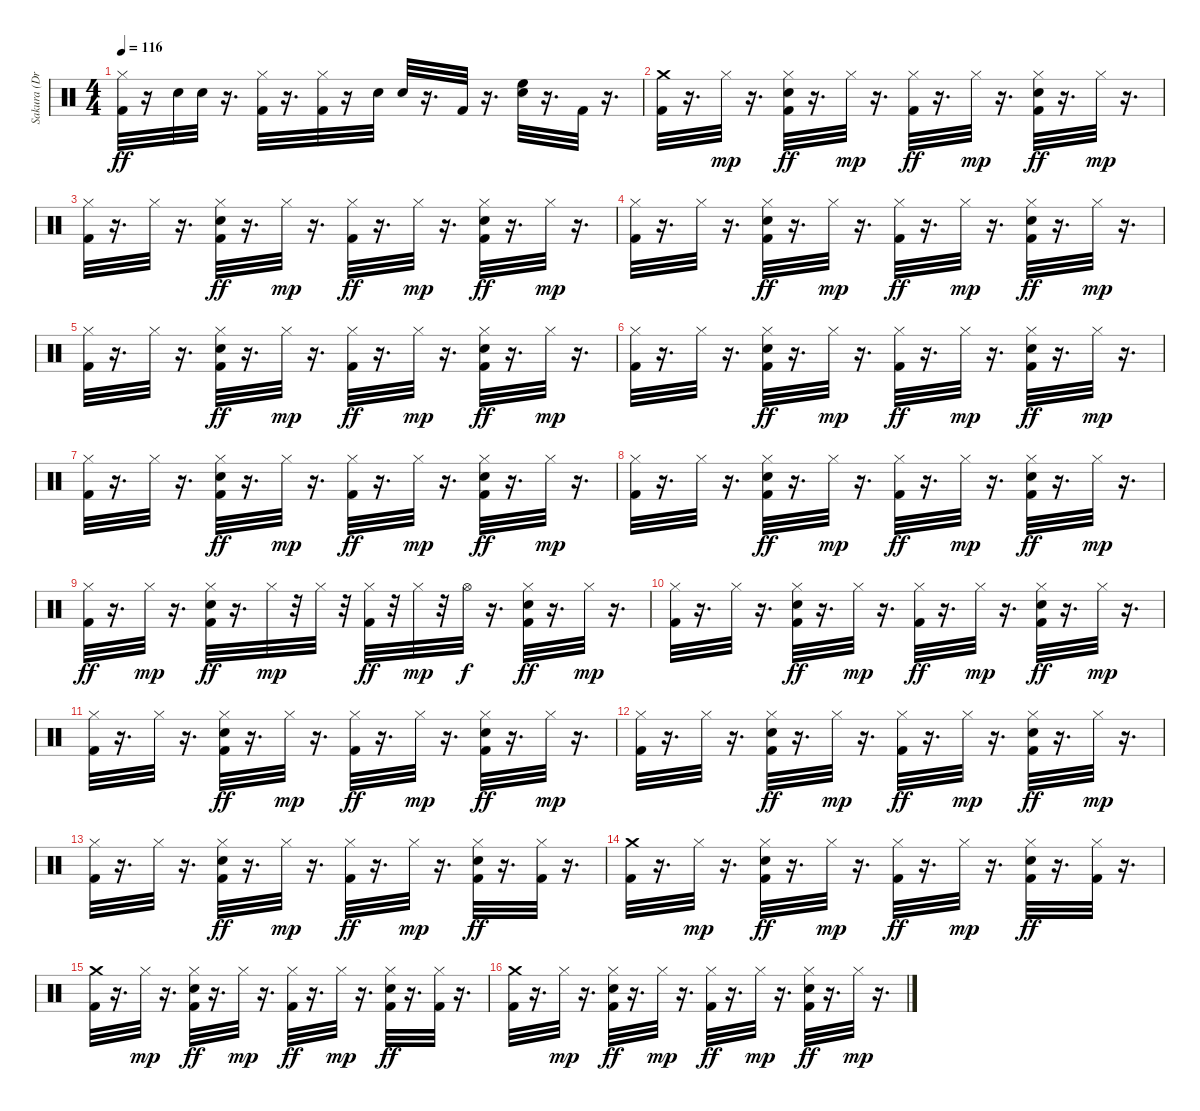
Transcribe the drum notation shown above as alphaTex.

\track ("Sakura (Drums)" "Sakura (Dr") {instrument percussion}
\staff {score}
\articulation defaults
\ts (4 4)
\tempo 116
\clef neutral
\ks c
("Hi-Hat (closed)" "Kick (hit) 2").32{dy ff} r.16 "Electric Snare (hit)".32 "Electric Snare (hit)".32 r.16{d} ("Hi-Hat (closed)" "Kick (hit) 2").32 r.16{d} ("Hi-Hat (closed)" "Kick (hit) 2").32 r.16 "Electric Snare (hit)".32 "Electric Snare (hit)".32 r.16{d} "Kick (hit) 2".32 r.16{d} ("Electric Snare (hit)" "High Floor Tom (hit)").32 r.16{d} "Kick (hit) 2".32 r.16{d} |
("Crash medium (hit)" "Kick (hit) 2").32 r.16{d} "Hi-Hat (closed)".32{dy mp} r.16{d} ("Hi-Hat (closed)" "Electric Snare (hit)" "Kick (hit) 2").32{dy ff} r.16{d} "Hi-Hat (closed)".32{dy mp} r.16{d} ("Hi-Hat (closed)" "Kick (hit) 2").32{dy ff} r.16{d} "Hi-Hat (closed)".32{dy mp} r.16{d} ("Hi-Hat (closed)" "Electric Snare (hit)" "Kick (hit) 2").32{dy ff} r.16{d} "Hi-Hat (closed)".32{dy mp} r.16{d} |
("Kick (hit) 2" "Hi-Hat (closed)").32 r.16{d} "Hi-Hat (closed)".32 r.16{d} ("Hi-Hat (closed)" "Electric Snare (hit)" "Kick (hit) 2").32{dy ff} r.16{d} "Hi-Hat (closed)".32{dy mp} r.16{d} ("Hi-Hat (closed)" "Kick (hit) 2").32{dy ff} r.16{d} "Hi-Hat (closed)".32{dy mp} r.16{d} ("Hi-Hat (closed)" "Electric Snare (hit)" "Kick (hit) 2").32{dy ff} r.16{d} "Hi-Hat (closed)".32{dy mp} r.16{d} |
("Kick (hit) 2" "Hi-Hat (closed)").32 r.16{d} "Hi-Hat (closed)".32 r.16{d} ("Hi-Hat (closed)" "Electric Snare (hit)" "Kick (hit) 2").32{dy ff} r.16{d} "Hi-Hat (closed)".32{dy mp} r.16{d} ("Hi-Hat (closed)" "Kick (hit) 2").32{dy ff} r.16{d} "Hi-Hat (closed)".32{dy mp} r.16{d} ("Hi-Hat (closed)" "Electric Snare (hit)" "Kick (hit) 2").32{dy ff} r.16{d} "Hi-Hat (closed)".32{dy mp} r.16{d} |
("Kick (hit) 2" "Hi-Hat (closed)").32 r.16{d} "Hi-Hat (closed)".32 r.16{d} ("Hi-Hat (closed)" "Electric Snare (hit)" "Kick (hit) 2").32{dy ff} r.16{d} "Hi-Hat (closed)".32{dy mp} r.16{d} ("Hi-Hat (closed)" "Kick (hit) 2").32{dy ff} r.16{d} "Hi-Hat (closed)".32{dy mp} r.16{d} ("Hi-Hat (closed)" "Electric Snare (hit)" "Kick (hit) 2").32{dy ff} r.16{d} "Hi-Hat (closed)".32{dy mp} r.16{d} |
("Kick (hit) 2" "Hi-Hat (closed)").32 r.16{d} "Hi-Hat (closed)".32 r.16{d} ("Hi-Hat (closed)" "Electric Snare (hit)" "Kick (hit) 2").32{dy ff} r.16{d} "Hi-Hat (closed)".32{dy mp} r.16{d} ("Hi-Hat (closed)" "Kick (hit) 2").32{dy ff} r.16{d} "Hi-Hat (closed)".32{dy mp} r.16{d} ("Hi-Hat (closed)" "Electric Snare (hit)" "Kick (hit) 2").32{dy ff} r.16{d} "Hi-Hat (closed)".32{dy mp} r.16{d} |
("Kick (hit) 2" "Hi-Hat (closed)").32 r.16{d} "Hi-Hat (closed)".32 r.16{d} ("Hi-Hat (closed)" "Electric Snare (hit)" "Kick (hit) 2").32{dy ff} r.16{d} "Hi-Hat (closed)".32{dy mp} r.16{d} ("Hi-Hat (closed)" "Kick (hit) 2").32{dy ff} r.16{d} "Hi-Hat (closed)".32{dy mp} r.16{d} ("Hi-Hat (closed)" "Electric Snare (hit)" "Kick (hit) 2").32{dy ff} r.16{d} "Hi-Hat (closed)".32{dy mp} r.16{d} |
("Kick (hit) 2" "Hi-Hat (closed)").32 r.16{d} "Hi-Hat (closed)".32 r.16{d} ("Hi-Hat (closed)" "Electric Snare (hit)" "Kick (hit) 2").32{dy ff} r.16{d} "Hi-Hat (closed)".32{dy mp} r.16{d} ("Hi-Hat (closed)" "Kick (hit) 2").32{dy ff} r.16{d} "Hi-Hat (closed)".32{dy mp} r.16{d} ("Hi-Hat (closed)" "Electric Snare (hit)" "Kick (hit) 2").32{dy ff} r.16{d} "Hi-Hat (closed)".32{dy mp} r.16{d} |
("Hi-Hat (closed)" "Kick (hit) 2").32{dy ff} r.16{d} "Hi-Hat (closed)".32{dy mp} r.16{d} ("Hi-Hat (closed)" "Electric Snare (hit)" "Kick (hit) 2").32{dy ff} r.16{d} "Hi-Hat (closed)".32{dy mp} r.32 "Hi-Hat (closed)".32 r.32 ("Hi-Hat (closed)" "Kick (hit) 2").32{dy ff} r.32 "Hi-Hat (closed)".32{dy mp} r.32 "Hi-Hat (open)".32{dy f} r.16{d} ("Hi-Hat (closed)" "Electric Snare (hit)" "Kick (hit) 2").32{dy ff} r.16{d} "Hi-Hat (closed)".32{dy mp} r.16{d} |
("Kick (hit) 2" "Hi-Hat (closed)").32 r.16{d} "Hi-Hat (closed)".32 r.16{d} ("Hi-Hat (closed)" "Electric Snare (hit)" "Kick (hit) 2").32{dy ff} r.16{d} "Hi-Hat (closed)".32{dy mp} r.16{d} ("Hi-Hat (closed)" "Kick (hit) 2").32{dy ff} r.16{d} "Hi-Hat (closed)".32{dy mp} r.16{d} ("Hi-Hat (closed)" "Electric Snare (hit)" "Kick (hit) 2").32{dy ff} r.16{d} "Hi-Hat (closed)".32{dy mp} r.16{d} |
("Kick (hit) 2" "Hi-Hat (closed)").32 r.16{d} "Hi-Hat (closed)".32 r.16{d} ("Hi-Hat (closed)" "Electric Snare (hit)" "Kick (hit) 2").32{dy ff} r.16{d} "Hi-Hat (closed)".32{dy mp} r.16{d} ("Hi-Hat (closed)" "Kick (hit) 2").32{dy ff} r.16{d} "Hi-Hat (closed)".32{dy mp} r.16{d} ("Hi-Hat (closed)" "Electric Snare (hit)" "Kick (hit) 2").32{dy ff} r.16{d} "Hi-Hat (closed)".32{dy mp} r.16{d} |
("Kick (hit) 2" "Hi-Hat (closed)").32 r.16{d} "Hi-Hat (closed)".32 r.16{d} ("Hi-Hat (closed)" "Electric Snare (hit)" "Kick (hit) 2").32{dy ff} r.16{d} "Hi-Hat (closed)".32{dy mp} r.16{d} ("Hi-Hat (closed)" "Kick (hit) 2").32{dy ff} r.16{d} "Hi-Hat (closed)".32{dy mp} r.16{d} ("Hi-Hat (closed)" "Electric Snare (hit)" "Kick (hit) 2").32{dy ff} r.16{d} "Hi-Hat (closed)".32{dy mp} r.16{d} |
("Kick (hit) 2" "Hi-Hat (closed)").32 r.16{d} "Hi-Hat (closed)".32 r.16{d} ("Hi-Hat (closed)" "Electric Snare (hit)" "Kick (hit) 2").32{dy ff} r.16{d} "Hi-Hat (closed)".32{dy mp} r.16{d} ("Hi-Hat (closed)" "Kick (hit) 2").32{dy ff} r.16{d} "Hi-Hat (closed)".32{dy mp} r.16{d} ("Hi-Hat (closed)" "Electric Snare (hit)" "Kick (hit) 2").32{dy ff} r.16{d} ("Hi-Hat (closed)" "Kick (hit) 2").32 r.16{d} |
("Kick (hit) 2" "Crash medium (hit)").32 r.16{d} "Hi-Hat (closed)".32{dy mp} r.16{d} ("Hi-Hat (closed)" "Electric Snare (hit)" "Kick (hit) 2").32{dy ff} r.16{d} "Hi-Hat (closed)".32{dy mp} r.16{d} ("Hi-Hat (closed)" "Kick (hit) 2").32{dy ff} r.16{d} "Hi-Hat (closed)".32{dy mp} r.16{d} ("Hi-Hat (closed)" "Electric Snare (hit)" "Kick (hit) 2").32{dy ff} r.16{d} ("Hi-Hat (closed)" "Kick (hit) 2").32 r.16{d} |
("Kick (hit) 2" "Crash medium (hit)").32 r.16{d} "Hi-Hat (closed)".32{dy mp} r.16{d} ("Hi-Hat (closed)" "Electric Snare (hit)" "Kick (hit) 2").32{dy ff} r.16{d} "Hi-Hat (closed)".32{dy mp} r.16{d} ("Hi-Hat (closed)" "Kick (hit) 2").32{dy ff} r.16{d} "Hi-Hat (closed)".32{dy mp} r.16{d} ("Hi-Hat (closed)" "Electric Snare (hit)" "Kick (hit) 2").32{dy ff} r.16{d} ("Hi-Hat (closed)" "Kick (hit) 2").32 r.16{d} |
("Kick (hit) 2" "Crash medium (hit)").32 r.16{d} "Hi-Hat (closed)".32{dy mp} r.16{d} ("Hi-Hat (closed)" "Electric Snare (hit)" "Kick (hit) 2").32{dy ff} r.16{d} "Hi-Hat (closed)".32{dy mp} r.16{d} ("Hi-Hat (closed)" "Kick (hit) 2").32{dy ff} r.16{d} "Hi-Hat (closed)".32{dy mp} r.16{d} ("Hi-Hat (closed)" "Electric Snare (hit)" "Kick (hit) 2").32{dy ff} r.16{d} "Hi-Hat (closed)".32{dy mp} r.16{d}
